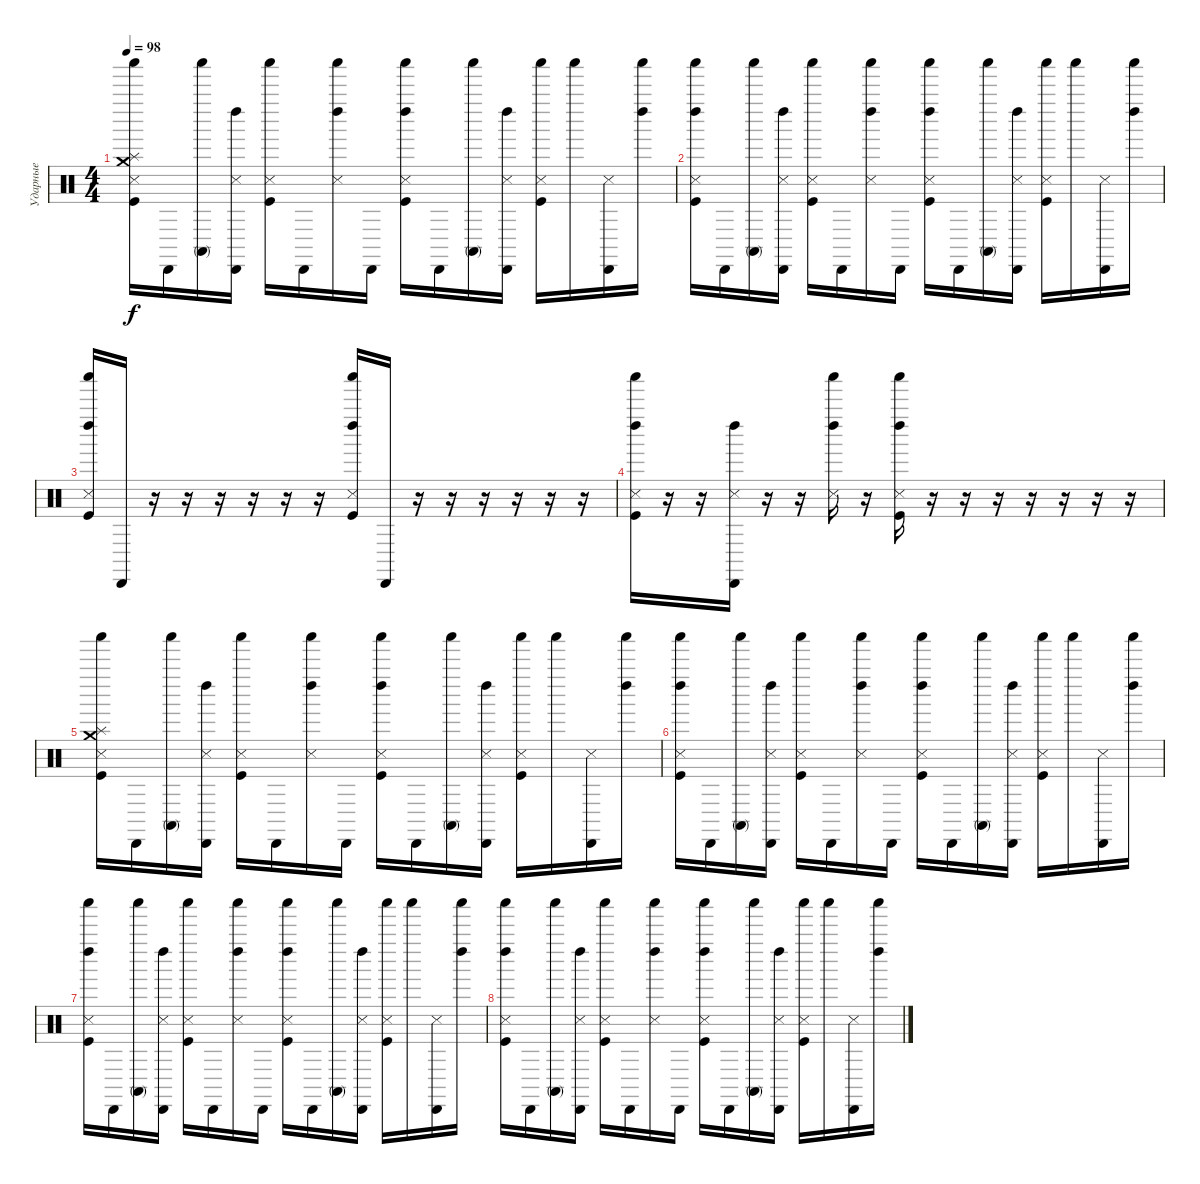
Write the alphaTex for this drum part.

\track ("Ударные" "Ударные") {instrument percussion}
\staff {score}
\articulation defaults
\ts (4 4)
\tempo 98
\clef neutral
\ks c
("Snare (side stick) 3" "Kick (hit)" "Splash (hit)" "Crash medium (hit)" "Shaker (hit)").16{dy f} "Cabasa (hit)".16 ("Conga high (mute)" "Shaker (hit)").16 ("Snare (side stick) 3" "Left Maraca (hit)" "Cabasa (hit)").16 ("Kick (hit)" "Snare (side stick) 3" "Shaker (hit)").16 "Cabasa (hit)".16 ("Snare (side stick) 3" "Left Maraca (hit)" "Shaker (hit)").16 "Cabasa (hit)".16 ("Snare (side stick) 3" "Kick (hit)" "Left Maraca (hit)" "Shaker (hit)").16 "Cabasa (hit)".16 ("Conga high (mute)" "Shaker (hit)").16 ("Snare (side stick) 3" "Left Maraca (hit)" "Cabasa (hit)").16 ("Kick (hit)" "Snare (side stick) 3" "Shaker (hit)").16 "Shaker (hit)".16 ("Snare (side stick) 3" "Cabasa (hit)").16 ("Left Maraca (hit)" "Shaker (hit)").16 |
("Snare (side stick) 3" "Kick (hit)" "Left Maraca (hit)" "Shaker (hit)").16 "Cabasa (hit)".16 ("Conga high (mute)" "Shaker (hit)").16 ("Snare (side stick) 3" "Left Maraca (hit)" "Cabasa (hit)").16 ("Kick (hit)" "Snare (side stick) 3" "Shaker (hit)").16 "Cabasa (hit)".16 ("Snare (side stick) 3" "Left Maraca (hit)" "Shaker (hit)").16 "Cabasa (hit)".16 ("Snare (side stick) 3" "Kick (hit)" "Left Maraca (hit)" "Shaker (hit)").16 "Cabasa (hit)".16 ("Conga high (mute)" "Shaker (hit)").16 ("Snare (side stick) 3" "Left Maraca (hit)" "Cabasa (hit)").16 ("Kick (hit)" "Snare (side stick) 3" "Shaker (hit)").16 "Shaker (hit)".16 ("Snare (side stick) 3" "Cabasa (hit)").16 ("Left Maraca (hit)" "Shaker (hit)").16 |
("Snare (side stick) 3" "Kick (hit)" "Left Maraca (hit)" "Shaker (hit)").16 "Cabasa (hit)".16 r.16 r.16 r.16 r.16 r.16 r.16 ("Snare (side stick) 3" "Kick (hit)" "Left Maraca (hit)" "Shaker (hit)").16 "Cabasa (hit)".16 r.16 r.16 r.16 r.16 r.16 r.16 |
("Snare (side stick) 3" "Kick (hit)" "Left Maraca (hit)" "Shaker (hit)").16 r.16 r.16 ("Snare (side stick) 3" "Left Maraca (hit)" "Cabasa (hit)").16 r.16 r.16 ("Snare (side stick) 3" "Left Maraca (hit)" "Shaker (hit)").16 r.16 ("Snare (side stick) 3" "Kick (hit)" "Left Maraca (hit)" "Shaker (hit)").16 r.16 r.16 r.16 r.16 r.16 r.16 r.16 |
("Snare (side stick) 3" "Kick (hit)" "Splash (hit)" "Crash medium (hit)" "Shaker (hit)").16 "Cabasa (hit)".16 ("Conga high (mute)" "Shaker (hit)").16 ("Snare (side stick) 3" "Left Maraca (hit)" "Cabasa (hit)").16 ("Kick (hit)" "Snare (side stick) 3" "Shaker (hit)").16 "Cabasa (hit)".16 ("Snare (side stick) 3" "Left Maraca (hit)" "Shaker (hit)").16 "Cabasa (hit)".16 ("Snare (side stick) 3" "Kick (hit)" "Left Maraca (hit)" "Shaker (hit)").16 "Cabasa (hit)".16 ("Conga high (mute)" "Shaker (hit)").16 ("Snare (side stick) 3" "Left Maraca (hit)" "Cabasa (hit)").16 ("Kick (hit)" "Snare (side stick) 3" "Shaker (hit)").16 "Shaker (hit)".16 ("Snare (side stick) 3" "Cabasa (hit)").16 ("Left Maraca (hit)" "Shaker (hit)").16 |
("Snare (side stick) 3" "Kick (hit)" "Left Maraca (hit)" "Shaker (hit)").16 "Cabasa (hit)".16 ("Conga high (mute)" "Shaker (hit)").16 ("Snare (side stick) 3" "Left Maraca (hit)" "Cabasa (hit)").16 ("Kick (hit)" "Snare (side stick) 3" "Shaker (hit)").16 "Cabasa (hit)".16 ("Snare (side stick) 3" "Left Maraca (hit)" "Shaker (hit)").16 "Cabasa (hit)".16 ("Snare (side stick) 3" "Kick (hit)" "Left Maraca (hit)" "Shaker (hit)").16 "Cabasa (hit)".16 ("Conga high (mute)" "Shaker (hit)").16 ("Snare (side stick) 3" "Left Maraca (hit)" "Cabasa (hit)").16 ("Kick (hit)" "Snare (side stick) 3" "Shaker (hit)").16 "Shaker (hit)".16 ("Snare (side stick) 3" "Cabasa (hit)").16 ("Left Maraca (hit)" "Shaker (hit)").16 |
("Snare (side stick) 3" "Kick (hit)" "Left Maraca (hit)" "Shaker (hit)").16 "Cabasa (hit)".16 ("Conga high (mute)" "Shaker (hit)").16 ("Snare (side stick) 3" "Left Maraca (hit)" "Cabasa (hit)").16 ("Kick (hit)" "Snare (side stick) 3" "Shaker (hit)").16 "Cabasa (hit)".16 ("Snare (side stick) 3" "Left Maraca (hit)" "Shaker (hit)").16 "Cabasa (hit)".16 ("Snare (side stick) 3" "Kick (hit)" "Left Maraca (hit)" "Shaker (hit)").16 "Cabasa (hit)".16 ("Conga high (mute)" "Shaker (hit)").16 ("Snare (side stick) 3" "Left Maraca (hit)" "Cabasa (hit)").16 ("Kick (hit)" "Snare (side stick) 3" "Shaker (hit)").16 "Shaker (hit)".16 ("Snare (side stick) 3" "Cabasa (hit)").16 ("Left Maraca (hit)" "Shaker (hit)").16 |
("Snare (side stick) 3" "Kick (hit)" "Left Maraca (hit)" "Shaker (hit)").16 "Cabasa (hit)".16 ("Conga high (mute)" "Shaker (hit)").16 ("Snare (side stick) 3" "Left Maraca (hit)" "Cabasa (hit)").16 ("Kick (hit)" "Snare (side stick) 3" "Shaker (hit)").16 "Cabasa (hit)".16 ("Snare (side stick) 3" "Left Maraca (hit)" "Shaker (hit)").16 "Cabasa (hit)".16 ("Snare (side stick) 3" "Kick (hit)" "Left Maraca (hit)" "Shaker (hit)").16 "Cabasa (hit)".16 ("Conga high (mute)" "Shaker (hit)").16 ("Snare (side stick) 3" "Left Maraca (hit)" "Cabasa (hit)").16 ("Kick (hit)" "Snare (side stick) 3" "Shaker (hit)").16 "Shaker (hit)".16 ("Snare (side stick) 3" "Cabasa (hit)").16 ("Left Maraca (hit)" "Shaker (hit)").16
